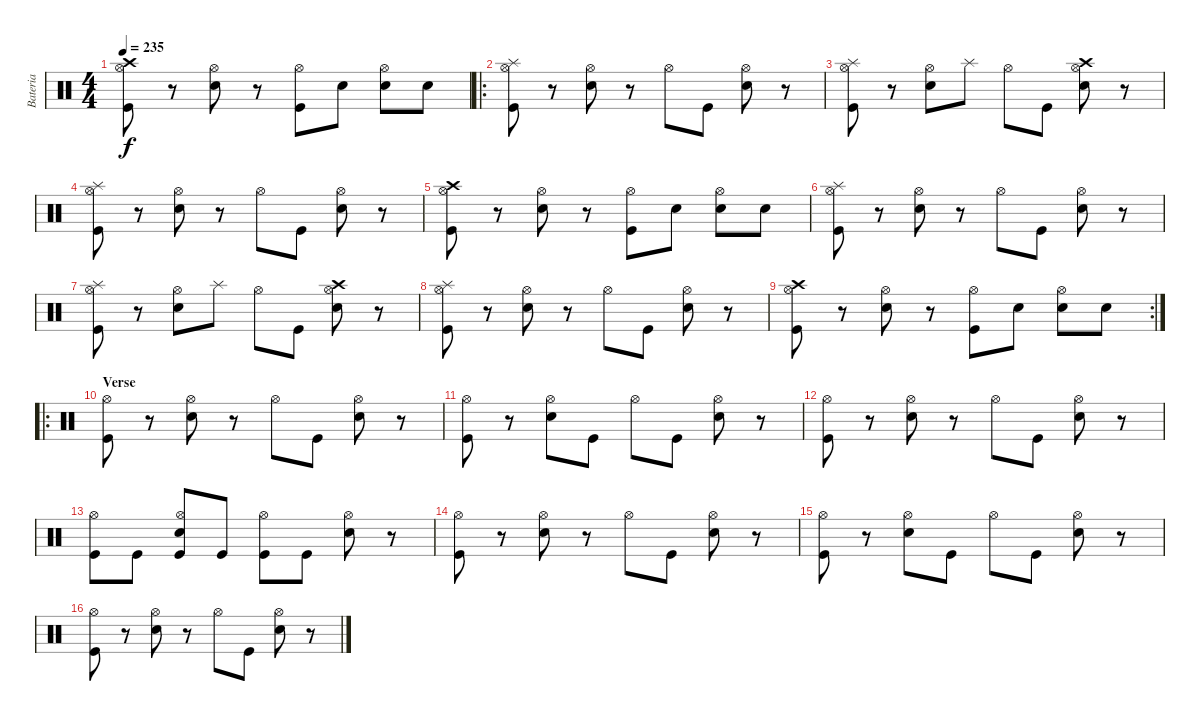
\track ("Bateria" "Bateria") {instrument percussion}
\staff {score}
\articulation defaults
\ts (4 4)
\tempo 235
\clef neutral
\ks c
("Kick (hit)" "Hi-Hat (open)" "Crash high (hit)").8{dy f} r.8 ("Electric Snare (hit)" "Hi-Hat (open)").8 r.8 ("Kick (hit)" "Hi-Hat (open)").8 "Electric Snare (hit)".8 ("Electric Snare (hit)" "Hi-Hat (open)").8 "Electric Snare (hit)".8 |
\ro
("Kick (hit)" "Hi-Hat (open)" "Splash (hit)").8 r.8 ("Electric Snare (hit)" "Hi-Hat (open)").8 r.8 "Hi-Hat (open)".8 "Kick (hit)".8 ("Electric Snare (hit)" "Hi-Hat (open)").8 r.8 |
("Kick (hit)" "Hi-Hat (open)" "Splash (hit)").8 r.8 ("Electric Snare (hit)" "Hi-Hat (open)").8 "Splash (hit)".8 "Hi-Hat (open)".8 "Kick (hit)".8 ("Electric Snare (hit)" "Hi-Hat (open)" "Crash high (hit)").8 r.8 |
("Kick (hit)" "Hi-Hat (open)" "Splash (hit)").8 r.8 ("Electric Snare (hit)" "Hi-Hat (open)").8 r.8 "Hi-Hat (open)".8 "Kick (hit)".8 ("Electric Snare (hit)" "Hi-Hat (open)").8 r.8 |
("Kick (hit)" "Hi-Hat (open)" "Crash high (hit)").8 r.8 ("Electric Snare (hit)" "Hi-Hat (open)").8 r.8 ("Kick (hit)" "Hi-Hat (open)").8 "Electric Snare (hit)".8 ("Electric Snare (hit)" "Hi-Hat (open)").8 "Electric Snare (hit)".8 |
("Kick (hit)" "Hi-Hat (open)" "Splash (hit)").8 r.8 ("Electric Snare (hit)" "Hi-Hat (open)").8 r.8 "Hi-Hat (open)".8 "Kick (hit)".8 ("Electric Snare (hit)" "Hi-Hat (open)").8 r.8 |
("Kick (hit)" "Hi-Hat (open)" "Splash (hit)").8 r.8 ("Electric Snare (hit)" "Hi-Hat (open)").8 "Splash (hit)".8 "Hi-Hat (open)".8 "Kick (hit)".8 ("Electric Snare (hit)" "Hi-Hat (open)" "Crash high (hit)").8 r.8 |
("Kick (hit)" "Hi-Hat (open)" "Splash (hit)").8 r.8 ("Electric Snare (hit)" "Hi-Hat (open)").8 r.8 "Hi-Hat (open)".8 "Kick (hit)".8 ("Electric Snare (hit)" "Hi-Hat (open)").8 r.8 |
\rc 2
("Kick (hit)" "Hi-Hat (open)" "Crash high (hit)").8 r.8 ("Electric Snare (hit)" "Hi-Hat (open)").8 r.8 ("Kick (hit)" "Hi-Hat (open)").8 "Electric Snare (hit)".8 ("Electric Snare (hit)" "Hi-Hat (open)").8 "Electric Snare (hit)".8 |
\ro
\section ("" "Verse")
("Kick (hit)" "Hi-Hat (open)").8 r.8 ("Electric Snare (hit)" "Hi-Hat (open)").8 r.8 "Hi-Hat (open)".8 "Kick (hit)".8 ("Electric Snare (hit)" "Hi-Hat (open)").8 r.8 |
("Kick (hit)" "Hi-Hat (open)").8 r.8 ("Electric Snare (hit)" "Hi-Hat (open)").8 "Kick (hit)".8 "Hi-Hat (open)".8 "Kick (hit)".8 ("Electric Snare (hit)" "Hi-Hat (open)").8 r.8 |
("Kick (hit)" "Hi-Hat (open)").8 r.8 ("Electric Snare (hit)" "Hi-Hat (open)").8 r.8 "Hi-Hat (open)".8 "Kick (hit)".8 ("Electric Snare (hit)" "Hi-Hat (open)").8 r.8 |
("Kick (hit)" "Hi-Hat (open)").8 "Kick (hit)".8 ("Kick (hit)" "Electric Snare (hit)" "Hi-Hat (open)").8 "Kick (hit)".8 ("Kick (hit)" "Hi-Hat (open)").8 "Kick (hit)".8 ("Electric Snare (hit)" "Hi-Hat (open)").8 r.8 |
("Kick (hit)" "Hi-Hat (open)").8 r.8 ("Electric Snare (hit)" "Hi-Hat (open)").8 r.8 "Hi-Hat (open)".8 "Kick (hit)".8 ("Electric Snare (hit)" "Hi-Hat (open)").8 r.8 |
("Kick (hit)" "Hi-Hat (open)").8 r.8 ("Electric Snare (hit)" "Hi-Hat (open)").8 "Kick (hit)".8 "Hi-Hat (open)".8 "Kick (hit)".8 ("Electric Snare (hit)" "Hi-Hat (open)").8 r.8 |
("Kick (hit)" "Hi-Hat (open)").8 r.8 ("Electric Snare (hit)" "Hi-Hat (open)").8 r.8 "Hi-Hat (open)".8 "Kick (hit)".8 ("Electric Snare (hit)" "Hi-Hat (open)").8 r.8
